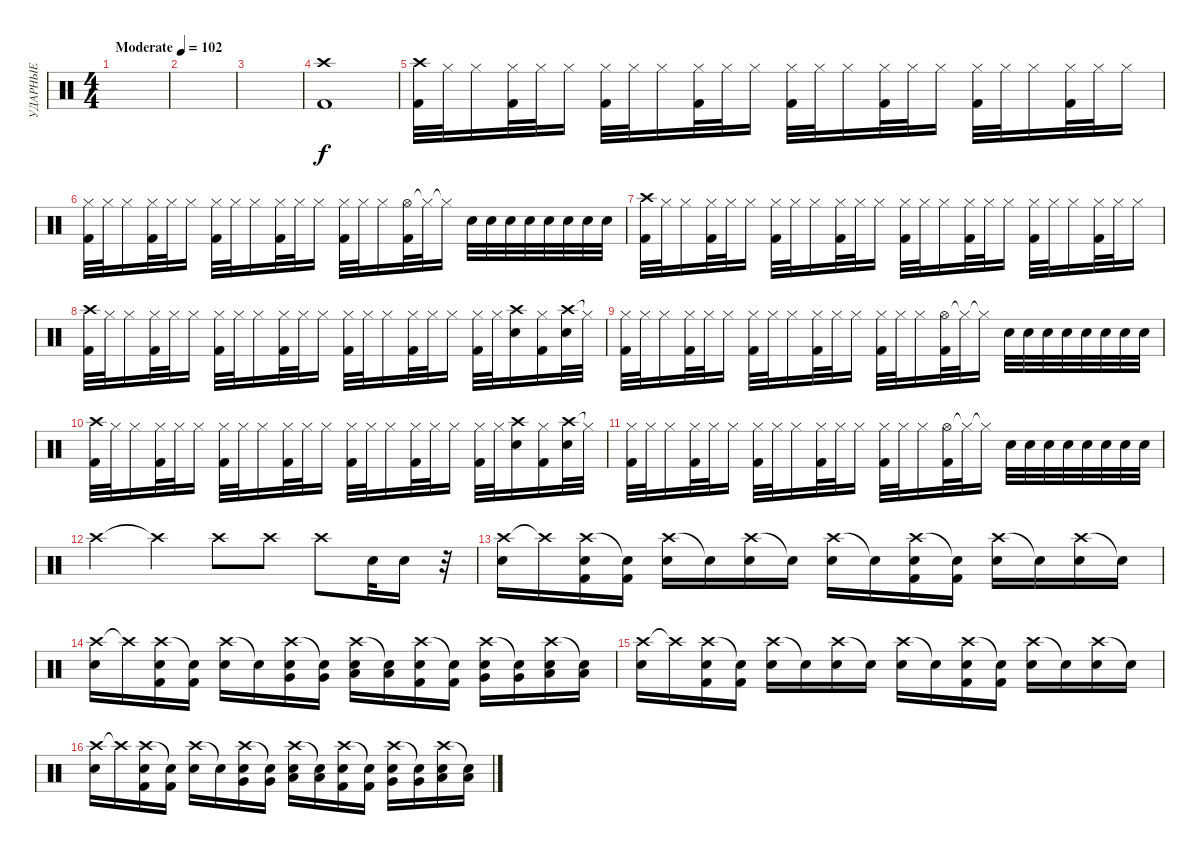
\track ("УДАРНЫЕ" "УДАРНЫЕ") {instrument percussion}
\staff {score}
\articulation defaults
\ts (4 4)
\tempo (102 "Moderate")
\clef neutral
\ks c
|
|
|
("Crash high (hit)" "Kick (hit) 2").1 |
("Crash high (hit)" "Kick (hit) 2").32 "Hi-Hat (closed)".32 "Hi-Hat (closed)".16 ("Hi-Hat (closed)" "Kick (hit) 2").32 "Hi-Hat (closed)".32 "Hi-Hat (closed)".16 ("Hi-Hat (closed)" "Kick (hit) 2").32 "Hi-Hat (closed)".32 "Hi-Hat (closed)".16 ("Hi-Hat (closed)" "Kick (hit) 2").32 "Hi-Hat (closed)".32 "Hi-Hat (closed)".16 ("Hi-Hat (closed)" "Kick (hit) 2").32 "Hi-Hat (closed)".32 "Hi-Hat (closed)".16 ("Hi-Hat (closed)" "Kick (hit) 2").32 "Hi-Hat (closed)".32 "Hi-Hat (closed)".16 ("Hi-Hat (closed)" "Kick (hit) 2").32 "Hi-Hat (closed)".32 "Hi-Hat (closed)".16 ("Hi-Hat (closed)" "Kick (hit) 2").32 "Hi-Hat (closed)".32 "Hi-Hat (closed)".16 |
("Hi-Hat (closed)" "Kick (hit) 2").32 "Hi-Hat (closed)".32 "Hi-Hat (closed)".16 ("Hi-Hat (closed)" "Kick (hit) 2").32 "Hi-Hat (closed)".32 "Hi-Hat (closed)".16 ("Hi-Hat (closed)" "Kick (hit) 2").32 "Hi-Hat (closed)".32 "Hi-Hat (closed)".16 ("Hi-Hat (closed)" "Kick (hit) 2").32 "Hi-Hat (closed)".32 "Hi-Hat (closed)".16 ("Hi-Hat (closed)" "Kick (hit) 2").32 "Hi-Hat (closed)".32 "Hi-Hat (closed)".16 ("Hi-Hat (open)" "Kick (hit) 2").32 "Hi-Hat (closed)"{t}.32 "Hi-Hat (closed)"{t}.16 "Electric Snare (hit)".32 "Electric Snare (hit)".32 "Electric Snare (hit)".32 "Electric Snare (hit)".32 "Electric Snare (hit)".32 "Electric Snare (hit)".32 "Electric Snare (hit)".32 "Electric Snare (hit)".32 |
("Crash high (hit)" "Kick (hit) 2").32 "Hi-Hat (closed)".32 "Hi-Hat (closed)".16 ("Hi-Hat (closed)" "Kick (hit) 2").32 "Hi-Hat (closed)".32 "Hi-Hat (closed)".16 ("Hi-Hat (closed)" "Kick (hit) 2").32 "Hi-Hat (closed)".32 "Hi-Hat (closed)".16 ("Hi-Hat (closed)" "Kick (hit) 2").32 "Hi-Hat (closed)".32 "Hi-Hat (closed)".16 ("Hi-Hat (closed)" "Kick (hit) 2").32 "Hi-Hat (closed)".32 "Hi-Hat (closed)".16 ("Hi-Hat (closed)" "Kick (hit) 2").32 "Hi-Hat (closed)".32 "Hi-Hat (closed)".16 ("Hi-Hat (closed)" "Kick (hit) 2").32 "Hi-Hat (closed)".32 "Hi-Hat (closed)".16 ("Hi-Hat (closed)" "Kick (hit) 2").32 "Hi-Hat (closed)".32 "Hi-Hat (closed)".16 |
("Crash high (hit)" "Kick (hit) 2").32 "Hi-Hat (closed)".32 "Hi-Hat (closed)".16 ("Hi-Hat (closed)" "Kick (hit) 2").32 "Hi-Hat (closed)".32 "Hi-Hat (closed)".16 ("Hi-Hat (closed)" "Kick (hit) 2").32 "Hi-Hat (closed)".32 "Hi-Hat (closed)".16 ("Hi-Hat (closed)" "Kick (hit) 2").32 "Hi-Hat (closed)".32 "Hi-Hat (closed)".16 ("Hi-Hat (closed)" "Kick (hit) 2").32 "Hi-Hat (closed)".32 "Hi-Hat (closed)".16 ("Hi-Hat (closed)" "Kick (hit) 2").32 "Hi-Hat (closed)".32 "Hi-Hat (closed)".16 ("Hi-Hat (closed)" "Kick (hit) 2").32 "Hi-Hat (closed)".32 ("Crash high (hit)" "Electric Snare (hit)").16 ("Hi-Hat (closed)" "Kick (hit) 2").16 ("Crash high (hit)" "Electric Snare (hit)").32 "Hi-Hat (closed)"{t}.32 |
("Hi-Hat (closed)" "Kick (hit) 2").32 "Hi-Hat (closed)".32 "Hi-Hat (closed)".16 ("Hi-Hat (closed)" "Kick (hit) 2").32 "Hi-Hat (closed)".32 "Hi-Hat (closed)".16 ("Hi-Hat (closed)" "Kick (hit) 2").32 "Hi-Hat (closed)".32 "Hi-Hat (closed)".16 ("Hi-Hat (closed)" "Kick (hit) 2").32 "Hi-Hat (closed)".32 "Hi-Hat (closed)".16 ("Hi-Hat (closed)" "Kick (hit) 2").32 "Hi-Hat (closed)".32 "Hi-Hat (closed)".16 ("Hi-Hat (open)" "Kick (hit) 2").32 "Hi-Hat (closed)"{t}.32 "Hi-Hat (closed)"{t}.16 "Electric Snare (hit)".32 "Electric Snare (hit)".32 "Electric Snare (hit)".32 "Electric Snare (hit)".32 "Electric Snare (hit)".32 "Electric Snare (hit)".32 "Electric Snare (hit)".32 "Electric Snare (hit)".32 |
("Crash high (hit)" "Kick (hit) 2").32 "Hi-Hat (closed)".32 "Hi-Hat (closed)".16 ("Hi-Hat (closed)" "Kick (hit) 2").32 "Hi-Hat (closed)".32 "Hi-Hat (closed)".16 ("Hi-Hat (closed)" "Kick (hit) 2").32 "Hi-Hat (closed)".32 "Hi-Hat (closed)".16 ("Hi-Hat (closed)" "Kick (hit) 2").32 "Hi-Hat (closed)".32 "Hi-Hat (closed)".16 ("Hi-Hat (closed)" "Kick (hit) 2").32 "Hi-Hat (closed)".32 "Hi-Hat (closed)".16 ("Hi-Hat (closed)" "Kick (hit) 2").32 "Hi-Hat (closed)".32 "Hi-Hat (closed)".16 ("Hi-Hat (closed)" "Kick (hit) 2").32 "Hi-Hat (closed)".32 ("Crash high (hit)" "Electric Snare (hit)").16 ("Hi-Hat (closed)" "Kick (hit) 2").16 ("Crash high (hit)" "Electric Snare (hit)").32 "Hi-Hat (closed)"{t}.32 |
("Hi-Hat (closed)" "Kick (hit) 2").32 "Hi-Hat (closed)".32 "Hi-Hat (closed)".16 ("Hi-Hat (closed)" "Kick (hit) 2").32 "Hi-Hat (closed)".32 "Hi-Hat (closed)".16 ("Hi-Hat (closed)" "Kick (hit) 2").32 "Hi-Hat (closed)".32 "Hi-Hat (closed)".16 ("Hi-Hat (closed)" "Kick (hit) 2").32 "Hi-Hat (closed)".32 "Hi-Hat (closed)".16 ("Hi-Hat (closed)" "Kick (hit) 2").32 "Hi-Hat (closed)".32 "Hi-Hat (closed)".16 ("Hi-Hat (open)" "Kick (hit) 2").32 "Hi-Hat (closed)"{t}.32 "Hi-Hat (closed)"{t}.16 "Electric Snare (hit)".32 "Electric Snare (hit)".32 "Electric Snare (hit)".32 "Electric Snare (hit)".32 "Electric Snare (hit)".32 "Electric Snare (hit)".32 "Electric Snare (hit)".32 "Electric Snare (hit)".32 |
"Crash high (hit)".4 "Crash high (hit)"{t}.4 "Crash high (hit)".8 "Crash high (hit)".8 "Crash high (hit)".8 "Electric Snare (hit)".32 "Electric Snare (hit)".16 r.32 |
("Crash high (hit)" "Electric Snare (hit)").16 "Crash high (hit)"{t}.16 ("Crash high (hit)" "Kick (hit) 2" "Electric Snare (hit)").16 ("Snare (hit)"{t} "Kick (hit) 2").16 ("Crash high (hit)" "Electric Snare (hit)").16 "Snare (hit)"{t}.16 ("Crash high (hit)" "Electric Snare (hit)").16 "Snare (hit)"{t}.16 ("Crash high (hit)" "Electric Snare (hit)").16 "Snare (hit)"{t}.16 ("Crash high (hit)" "Kick (hit) 2" "Electric Snare (hit)").16 ("Snare (hit)"{t} "Kick (hit) 2").16 ("Crash high (hit)" "Electric Snare (hit)").16 "Snare (hit)"{t}.16 ("Crash high (hit)" "Electric Snare (hit)").16 "Snare (hit)"{t}.16 |
("Crash high (hit)" "Electric Snare (hit)").16 "Crash high (hit)"{t}.16 ("Crash high (hit)" "Kick (hit) 2" "Electric Snare (hit)").16 ("Snare (hit)"{t} "Kick (hit) 2").16 ("Crash high (hit)" "Electric Snare (hit)").16 "Snare (hit)"{t}.16 ("Crash high (hit)" "Very Low Tom (hit)" "Electric Snare (hit)").16 ("Snare (hit)"{t} "Very Low Tom (hit)").16 ("Crash high (hit)" "Low Tom (hit)" "Electric Snare (hit)").16 ("Snare (hit)"{t} "Low Tom (hit)").16 ("Crash high (hit)" "Kick (hit) 2" "Electric Snare (hit)").16 ("Snare (hit)"{t} "Kick (hit) 2").16 ("Crash high (hit)" "Very Low Tom (hit)" "Electric Snare (hit)").16 ("Snare (hit)"{t} "Very Low Tom (hit)").16 ("Crash high (hit)" "Low Tom (hit)" "Electric Snare (hit)").16 ("Snare (hit)"{t} "Low Tom (hit)").16 |
("Crash high (hit)" "Electric Snare (hit)").16 "Crash high (hit)"{t}.16 ("Crash high (hit)" "Kick (hit) 2" "Electric Snare (hit)").16 ("Snare (hit)"{t} "Kick (hit) 2").16 ("Crash high (hit)" "Electric Snare (hit)").16 "Snare (hit)"{t}.16 ("Crash high (hit)" "Electric Snare (hit)").16 "Snare (hit)"{t}.16 ("Crash high (hit)" "Electric Snare (hit)").16 "Snare (hit)"{t}.16 ("Crash high (hit)" "Kick (hit) 2" "Electric Snare (hit)").16 ("Snare (hit)"{t} "Kick (hit) 2").16 ("Crash high (hit)" "Electric Snare (hit)").16 "Snare (hit)"{t}.16 ("Crash high (hit)" "Electric Snare (hit)").16 "Snare (hit)"{t}.16 |
("Crash high (hit)" "Electric Snare (hit)").16 "Crash high (hit)"{t}.16 ("Crash high (hit)" "Kick (hit) 2" "Electric Snare (hit)").16 ("Snare (hit)"{t} "Kick (hit) 2").16 ("Crash high (hit)" "Electric Snare (hit)").16 "Snare (hit)"{t}.16 ("Crash high (hit)" "Very Low Tom (hit)" "Electric Snare (hit)").16 ("Snare (hit)"{t} "Very Low Tom (hit)").16 ("Crash high (hit)" "Low Tom (hit)" "Electric Snare (hit)").16 ("Snare (hit)"{t} "Low Tom (hit)").16 ("Crash high (hit)" "Kick (hit) 2" "Electric Snare (hit)").16 ("Snare (hit)"{t} "Kick (hit) 2").16 ("Crash high (hit)" "Very Low Tom (hit)" "Electric Snare (hit)").16 ("Snare (hit)"{t} "Very Low Tom (hit)").16 ("Crash high (hit)" "Low Tom (hit)" "Electric Snare (hit)").16 ("Snare (hit)"{t} "Low Tom (hit)").16
